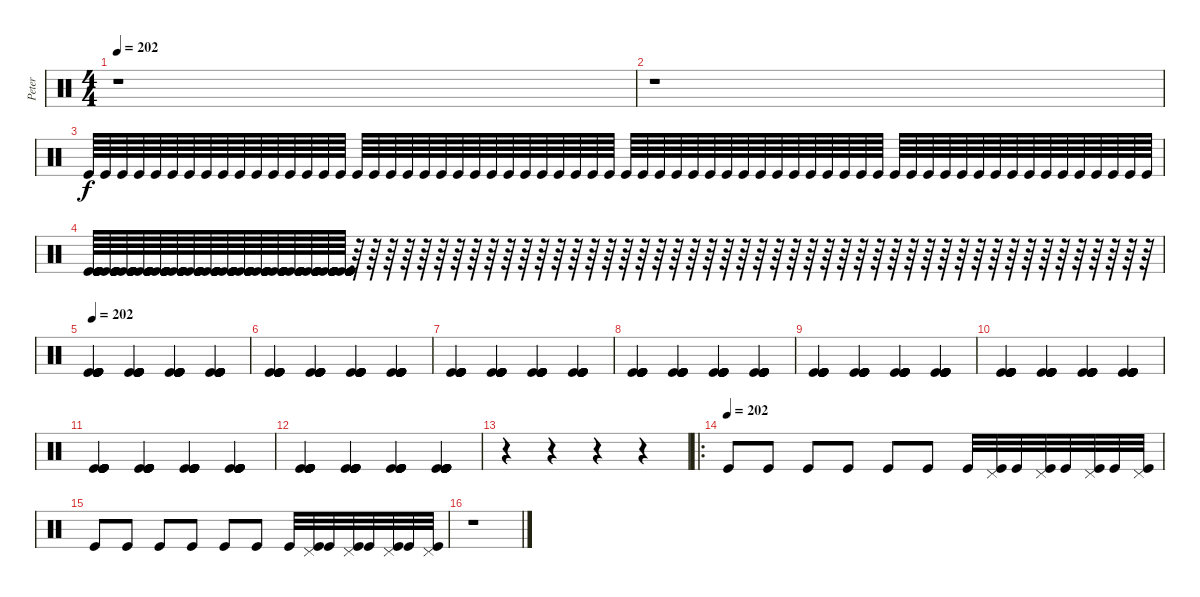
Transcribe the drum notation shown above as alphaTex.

\track ("Peter" "Peter") {instrument percussion}
\staff {score}
\articulation defaults
\ts (4 4)
\tempo 202
\clef neutral
\ks c
r.1{dy f} |
r.1 |
"Kick (hit)".64 "Kick (hit)".64 "Kick (hit)".64 "Kick (hit)".64 "Kick (hit)".64 "Kick (hit)".64 "Kick (hit)".64 "Kick (hit)".64 "Kick (hit)".64 "Kick (hit)".64 "Kick (hit)".64 "Kick (hit)".64 "Kick (hit)".64 "Kick (hit)".64 "Kick (hit)".64 "Kick (hit)".64 "Kick (hit)".64 "Kick (hit)".64 "Kick (hit)".64 "Kick (hit)".64 "Kick (hit)".64 "Kick (hit)".64 "Kick (hit)".64 "Kick (hit)".64 "Kick (hit)".64 "Kick (hit)".64 "Kick (hit)".64 "Kick (hit)".64 "Kick (hit)".64 "Kick (hit)".64 "Kick (hit)".64 "Kick (hit)".64 "Kick (hit)".64 "Kick (hit)".64 "Kick (hit)".64 "Kick (hit)".64 "Kick (hit)".64 "Kick (hit)".64 "Kick (hit)".64 "Kick (hit)".64 "Kick (hit)".64 "Kick (hit)".64 "Kick (hit)".64 "Kick (hit)".64 "Kick (hit)".64 "Kick (hit)".64 "Kick (hit)".64 "Kick (hit)".64 "Kick (hit)".64 "Kick (hit)".64 "Kick (hit)".64 "Kick (hit)".64 "Kick (hit)".64 "Kick (hit)".64 "Kick (hit)".64 "Kick (hit)".64 "Kick (hit)".64 "Kick (hit)".64 "Kick (hit)".64 "Kick (hit)".64 "Kick (hit)".64 "Kick (hit)".64 "Kick (hit)".64 "Kick (hit)".64 |
("Kick (hit)" "Kick (hit)" "Kick (hit)" "Kick (hit)" "Kick (hit)" "Kick (hit)").64 ("Kick (hit)" "Kick (hit)" "Kick (hit)" "Kick (hit)" "Kick (hit)" "Kick (hit)").64 ("Kick (hit)" "Kick (hit)" "Kick (hit)" "Kick (hit)" "Kick (hit)" "Kick (hit)").64 ("Kick (hit)" "Kick (hit)" "Kick (hit)" "Kick (hit)" "Kick (hit)" "Kick (hit)").64 ("Kick (hit)" "Kick (hit)" "Kick (hit)" "Kick (hit)" "Kick (hit)" "Kick (hit)").64 ("Kick (hit)" "Kick (hit)" "Kick (hit)" "Kick (hit)" "Kick (hit)" "Kick (hit)").64 ("Kick (hit)" "Kick (hit)" "Kick (hit)" "Kick (hit)" "Kick (hit)" "Kick (hit)").64 ("Kick (hit)" "Kick (hit)" "Kick (hit)" "Kick (hit)" "Kick (hit)" "Kick (hit)").64 ("Kick (hit)" "Kick (hit)" "Kick (hit)" "Kick (hit)" "Kick (hit)" "Kick (hit)").64 ("Kick (hit)" "Kick (hit)" "Kick (hit)" "Kick (hit)" "Kick (hit)" "Kick (hit)").64 ("Kick (hit)" "Kick (hit)" "Kick (hit)" "Kick (hit)" "Kick (hit)" "Kick (hit)").64 ("Kick (hit)" "Kick (hit)" "Kick (hit)" "Kick (hit)" "Kick (hit)" "Kick (hit)").64 ("Kick (hit)" "Kick (hit)" "Kick (hit)" "Kick (hit)" "Kick (hit)" "Kick (hit)").64 ("Kick (hit)" "Kick (hit)" "Kick (hit)" "Kick (hit)" "Kick (hit)" "Kick (hit)").64 ("Kick (hit)" "Kick (hit)" "Kick (hit)" "Kick (hit)" "Kick (hit)" "Kick (hit)").64 ("Kick (hit)" "Kick (hit)" "Kick (hit)" "Kick (hit)" "Kick (hit)" "Kick (hit)").64 r.64 r.64 r.64 r.64 r.64 r.64 r.64 r.64 r.64 r.64 r.64 r.64 r.64 r.64 r.64 r.64 r.64 r.64 r.64 r.64 r.64 r.64 r.64 r.64 r.64 r.64 r.64 r.64 r.64 r.64 r.64 r.64 r.64 r.64 r.64 r.64 r.64 r.64 r.64 r.64 r.64 r.64 r.64 r.64 r.64 r.64 r.64 r.64 |
\tempo 202
("Kick (hit)" "Kick (hit)" "Kick (hit)" "Kick (hit)" "Kick (hit)" "Kick (hit)").4 ("Kick (hit)" "Kick (hit)" "Kick (hit)" "Kick (hit)" "Kick (hit)" "Kick (hit)").4 ("Kick (hit)" "Kick (hit)" "Kick (hit)" "Kick (hit)" "Kick (hit)" "Kick (hit)").4 ("Kick (hit)" "Kick (hit)" "Kick (hit)" "Kick (hit)" "Kick (hit)" "Kick (hit)").4 |
("Kick (hit)" "Kick (hit)" "Kick (hit)" "Kick (hit)" "Kick (hit)" "Kick (hit)").4 ("Kick (hit)" "Kick (hit)" "Kick (hit)" "Kick (hit)" "Kick (hit)" "Kick (hit)").4 ("Kick (hit)" "Kick (hit)" "Kick (hit)" "Kick (hit)" "Kick (hit)" "Kick (hit)").4 ("Kick (hit)" "Kick (hit)" "Kick (hit)" "Kick (hit)" "Kick (hit)" "Kick (hit)").4 |
("Kick (hit)" "Kick (hit)" "Kick (hit)" "Kick (hit)" "Kick (hit)" "Kick (hit)").4 ("Kick (hit)" "Kick (hit)" "Kick (hit)" "Kick (hit)" "Kick (hit)" "Kick (hit)").4 ("Kick (hit)" "Kick (hit)" "Kick (hit)" "Kick (hit)" "Kick (hit)" "Kick (hit)").4 ("Kick (hit)" "Kick (hit)" "Kick (hit)" "Kick (hit)" "Kick (hit)" "Kick (hit)").4 |
("Kick (hit)" "Kick (hit)" "Kick (hit)" "Kick (hit)" "Kick (hit)" "Kick (hit)").4 ("Kick (hit)" "Kick (hit)" "Kick (hit)" "Kick (hit)" "Kick (hit)" "Kick (hit)").4 ("Kick (hit)" "Kick (hit)" "Kick (hit)" "Kick (hit)" "Kick (hit)" "Kick (hit)").4 ("Kick (hit)" "Kick (hit)" "Kick (hit)" "Kick (hit)" "Kick (hit)" "Kick (hit)").4 |
("Kick (hit)" "Kick (hit)" "Kick (hit)" "Kick (hit)" "Kick (hit)" "Kick (hit)").4 ("Kick (hit)" "Kick (hit)" "Kick (hit)" "Kick (hit)" "Kick (hit)" "Kick (hit)").4 ("Kick (hit)" "Kick (hit)" "Kick (hit)" "Kick (hit)" "Kick (hit)" "Kick (hit)").4 ("Kick (hit)" "Kick (hit)" "Kick (hit)" "Kick (hit)" "Kick (hit)" "Kick (hit)").4 |
("Kick (hit)" "Kick (hit)" "Kick (hit)" "Kick (hit)" "Kick (hit)" "Kick (hit)").4 ("Kick (hit)" "Kick (hit)" "Kick (hit)" "Kick (hit)" "Kick (hit)" "Kick (hit)").4 ("Kick (hit)" "Kick (hit)" "Kick (hit)" "Kick (hit)" "Kick (hit)" "Kick (hit)").4 ("Kick (hit)" "Kick (hit)" "Kick (hit)" "Kick (hit)" "Kick (hit)" "Kick (hit)").4 |
("Kick (hit)" "Kick (hit)" "Kick (hit)" "Kick (hit)" "Kick (hit)" "Kick (hit)").4 ("Kick (hit)" "Kick (hit)" "Kick (hit)" "Kick (hit)" "Kick (hit)" "Kick (hit)").4 ("Kick (hit)" "Kick (hit)" "Kick (hit)" "Kick (hit)" "Kick (hit)" "Kick (hit)").4 ("Kick (hit)" "Kick (hit)" "Kick (hit)" "Kick (hit)" "Kick (hit)" "Kick (hit)").4 |
("Kick (hit)" "Kick (hit)" "Kick (hit)" "Kick (hit)" "Kick (hit)" "Kick (hit)").4 ("Kick (hit)" "Kick (hit)" "Kick (hit)" "Kick (hit)" "Kick (hit)" "Kick (hit)").4 ("Kick (hit)" "Kick (hit)" "Kick (hit)" "Kick (hit)" "Kick (hit)" "Kick (hit)").4 ("Kick (hit)" "Kick (hit)" "Kick (hit)" "Kick (hit)" "Kick (hit)" "Kick (hit)").4 |
r.4 r.4 r.4 r.4 |
\ro
\tempo (202)
"Kick (hit)".8 "Kick (hit)".8 "Kick (hit)".8 "Kick (hit)".8 "Kick (hit)".8 "Kick (hit)".8 "Kick (hit)".32 ("Pedal Hi-Hat (hit)" "Kick (hit)").32 "Kick (hit)".32 ("Pedal Hi-Hat (hit)" "Kick (hit)").32 "Kick (hit)".32 ("Pedal Hi-Hat (hit)" "Kick (hit)").32 "Kick (hit)".32 ("Pedal Hi-Hat (hit)" "Kick (hit)").32 |
"Kick (hit)".8 "Kick (hit)".8 "Kick (hit)".8 "Kick (hit)".8 "Kick (hit)".8 "Kick (hit)".8 "Kick (hit)".32 ("Pedal Hi-Hat (hit)" "Kick (hit)").32 "Kick (hit)".32 ("Pedal Hi-Hat (hit)" "Kick (hit)").32 "Kick (hit)".32 ("Pedal Hi-Hat (hit)" "Kick (hit)").32 "Kick (hit)".32 ("Pedal Hi-Hat (hit)" "Kick (hit)").32 |
r.1
